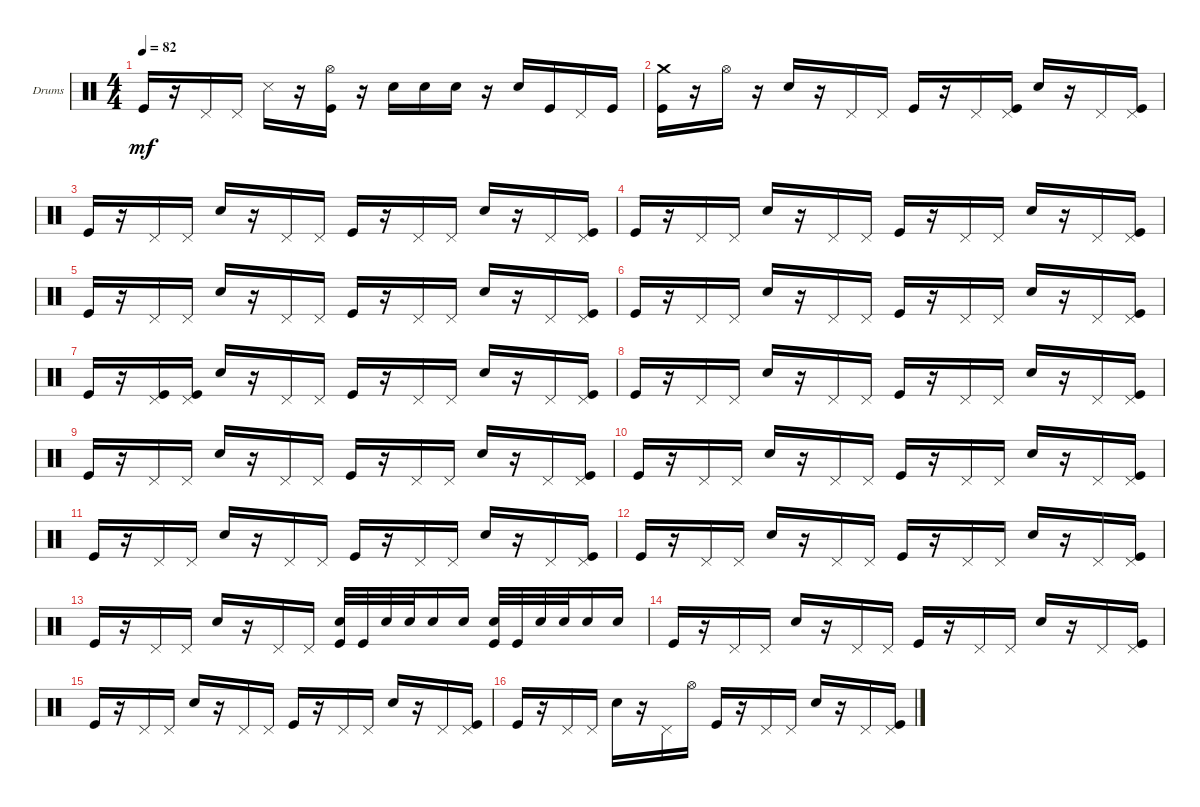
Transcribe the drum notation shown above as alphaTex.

\bracketExtendMode groupsimilarinstruments
\firstSystemTrackNameOrientation horizontal
\otherSystemsTrackNameOrientation horizontal
\track ("Drumkit" "Drums") {instrument percussion}
\staff {score}
\articulation defaults
\ts (4 4)
\tempo 82
\clef neutral
\ks aminor "Kick (hit)".16{dy mf}
r.16 "Pedal Hi-Hat (hit)".16 "Pedal Hi-Hat (hit)".16 "Snare (side stick) 3".16 r.16 ("Kick (hit)" "Hi-Hat (open)").16 r.16 "Snare (hit) 2".16 "Snare (hit) 2".16 "Snare (hit) 2".16 r.16 "Snare (hit) 2".16 "Kick (hit)".16 "Pedal Hi-Hat (hit)".16 "Kick (hit)".16 |
("Kick (hit)" "Crash medium (hit)").16 r.16 "Hi-Hat (open)".16 r.16 "Snare (hit) 2".16 r.16 "Pedal Hi-Hat (hit)".16 "Pedal Hi-Hat (hit)".16 "Kick (hit)".16 r.16 "Pedal Hi-Hat (hit)".16 ("Kick (hit)" "Pedal Hi-Hat (hit)").16 "Snare (hit) 2".16 r.16 "Pedal Hi-Hat (hit)".16 ("Kick (hit)" "Pedal Hi-Hat (hit)").16 |
"Kick (hit)".16 r.16 "Pedal Hi-Hat (hit)".16 "Pedal Hi-Hat (hit)".16 "Snare (hit) 2".16 r.16 "Pedal Hi-Hat (hit)".16 "Pedal Hi-Hat (hit)".16 "Kick (hit)".16 r.16 "Pedal Hi-Hat (hit)".16 "Pedal Hi-Hat (hit)".16 "Snare (hit) 2".16 r.16 "Pedal Hi-Hat (hit)".16 ("Kick (hit)" "Pedal Hi-Hat (hit)").16 |
"Kick (hit)".16 r.16 "Pedal Hi-Hat (hit)".16 "Pedal Hi-Hat (hit)".16 "Snare (hit) 2".16 r.16 "Pedal Hi-Hat (hit)".16 "Pedal Hi-Hat (hit)".16 "Kick (hit)".16 r.16 "Pedal Hi-Hat (hit)".16 "Pedal Hi-Hat (hit)".16 "Snare (hit) 2".16 r.16 "Pedal Hi-Hat (hit)".16 ("Kick (hit)" "Pedal Hi-Hat (hit)").16 |
"Kick (hit)".16 r.16 "Pedal Hi-Hat (hit)".16 "Pedal Hi-Hat (hit)".16 "Snare (hit) 2".16 r.16 "Pedal Hi-Hat (hit)".16 "Pedal Hi-Hat (hit)".16 "Kick (hit)".16 r.16 "Pedal Hi-Hat (hit)".16 "Pedal Hi-Hat (hit)".16 "Snare (hit) 2".16 r.16 "Pedal Hi-Hat (hit)".16 ("Kick (hit)" "Pedal Hi-Hat (hit)").16 |
"Kick (hit)".16 r.16 "Pedal Hi-Hat (hit)".16 "Pedal Hi-Hat (hit)".16 "Snare (hit) 2".16 r.16 "Pedal Hi-Hat (hit)".16 "Pedal Hi-Hat (hit)".16 "Kick (hit)".16 r.16 "Pedal Hi-Hat (hit)".16 "Pedal Hi-Hat (hit)".16 "Snare (hit) 2".16 r.16 "Pedal Hi-Hat (hit)".16 ("Kick (hit)" "Pedal Hi-Hat (hit)").16 |
"Kick (hit)".16 r.16 ("Kick (hit)" "Pedal Hi-Hat (hit)").16 ("Kick (hit)" "Pedal Hi-Hat (hit)").16 "Snare (hit) 2".16 r.16 "Pedal Hi-Hat (hit)".16 "Pedal Hi-Hat (hit)".16 "Kick (hit)".16 r.16 "Pedal Hi-Hat (hit)".16 "Pedal Hi-Hat (hit)".16 "Snare (hit) 2".16 r.16 "Pedal Hi-Hat (hit)".16 ("Kick (hit)" "Pedal Hi-Hat (hit)").16 |
"Kick (hit)".16 r.16 "Pedal Hi-Hat (hit)".16 "Pedal Hi-Hat (hit)".16 "Snare (hit) 2".16 r.16 "Pedal Hi-Hat (hit)".16 "Pedal Hi-Hat (hit)".16 "Kick (hit)".16 r.16 "Pedal Hi-Hat (hit)".16 "Pedal Hi-Hat (hit)".16 "Snare (hit) 2".16 r.16 "Pedal Hi-Hat (hit)".16 ("Kick (hit)" "Pedal Hi-Hat (hit)").16 |
"Kick (hit)".16 r.16 "Pedal Hi-Hat (hit)".16 "Pedal Hi-Hat (hit)".16 "Snare (hit) 2".16 r.16 "Pedal Hi-Hat (hit)".16 "Pedal Hi-Hat (hit)".16 "Kick (hit)".16 r.16 "Pedal Hi-Hat (hit)".16 "Pedal Hi-Hat (hit)".16 "Snare (hit) 2".16 r.16 "Pedal Hi-Hat (hit)".16 ("Kick (hit)" "Pedal Hi-Hat (hit)").16 |
"Kick (hit)".16 r.16 "Pedal Hi-Hat (hit)".16 "Pedal Hi-Hat (hit)".16 "Snare (hit) 2".16 r.16 "Pedal Hi-Hat (hit)".16 "Pedal Hi-Hat (hit)".16 "Kick (hit)".16 r.16 "Pedal Hi-Hat (hit)".16 "Pedal Hi-Hat (hit)".16 "Snare (hit) 2".16 r.16 "Pedal Hi-Hat (hit)".16 ("Kick (hit)" "Pedal Hi-Hat (hit)").16 |
"Kick (hit)".16 r.16 "Pedal Hi-Hat (hit)".16 "Pedal Hi-Hat (hit)".16 "Snare (hit) 2".16 r.16 "Pedal Hi-Hat (hit)".16 "Pedal Hi-Hat (hit)".16 "Kick (hit)".16 r.16 "Pedal Hi-Hat (hit)".16 "Pedal Hi-Hat (hit)".16 "Snare (hit) 2".16 r.16 "Pedal Hi-Hat (hit)".16 ("Kick (hit)" "Pedal Hi-Hat (hit)").16 |
"Kick (hit)".16 r.16 "Pedal Hi-Hat (hit)".16 "Pedal Hi-Hat (hit)".16 "Snare (hit) 2".16 r.16 "Pedal Hi-Hat (hit)".16 "Pedal Hi-Hat (hit)".16 "Kick (hit)".16 r.16 "Pedal Hi-Hat (hit)".16 "Pedal Hi-Hat (hit)".16 "Snare (hit) 2".16 r.16 "Pedal Hi-Hat (hit)".16 ("Kick (hit)" "Pedal Hi-Hat (hit)").16 |
"Kick (hit)".16 r.16 "Pedal Hi-Hat (hit)".16 "Pedal Hi-Hat (hit)".16 "Snare (hit) 2".16 r.16 "Pedal Hi-Hat (hit)".16 "Pedal Hi-Hat (hit)".16 ("Snare (hit) 2" "Kick (hit)").32 "Kick (hit)".32 "Snare (hit) 2".32 "Snare (hit) 2".32 "Snare (hit) 2".16 "Snare (hit) 2".16 ("Snare (hit) 2" "Kick (hit)").32 "Kick (hit)".32 "Snare (hit) 2".32 "Snare (hit) 2".32 "Snare (hit) 2".16 "Snare (hit) 2".16 |
"Kick (hit)".16 r.16 "Pedal Hi-Hat (hit)".16 "Pedal Hi-Hat (hit)".16 "Snare (hit) 2".16 r.16 "Pedal Hi-Hat (hit)".16 "Pedal Hi-Hat (hit)".16 "Kick (hit)".16 r.16 "Pedal Hi-Hat (hit)".16 "Pedal Hi-Hat (hit)".16 "Snare (hit) 2".16 r.16 "Pedal Hi-Hat (hit)".16 ("Kick (hit)" "Pedal Hi-Hat (hit)").16 |
"Kick (hit)".16 r.16 "Pedal Hi-Hat (hit)".16 "Pedal Hi-Hat (hit)".16 "Snare (hit) 2".16 r.16 "Pedal Hi-Hat (hit)".16 "Pedal Hi-Hat (hit)".16 "Kick (hit)".16 r.16 "Pedal Hi-Hat (hit)".16 "Pedal Hi-Hat (hit)".16 "Snare (hit) 2".16 r.16 "Pedal Hi-Hat (hit)".16 ("Kick (hit)" "Pedal Hi-Hat (hit)").16 |
"Kick (hit)".16 r.16 "Pedal Hi-Hat (hit)".16 "Pedal Hi-Hat (hit)".16 "Snare (hit) 2".16 r.16 "Pedal Hi-Hat (hit)".16 "Hi-Hat (open)".16 "Kick (hit)".16 r.16 "Pedal Hi-Hat (hit)".16 "Pedal Hi-Hat (hit)".16 "Snare (hit) 2".16 r.16 "Pedal Hi-Hat (hit)".16 ("Kick (hit)" "Pedal Hi-Hat (hit)").16
